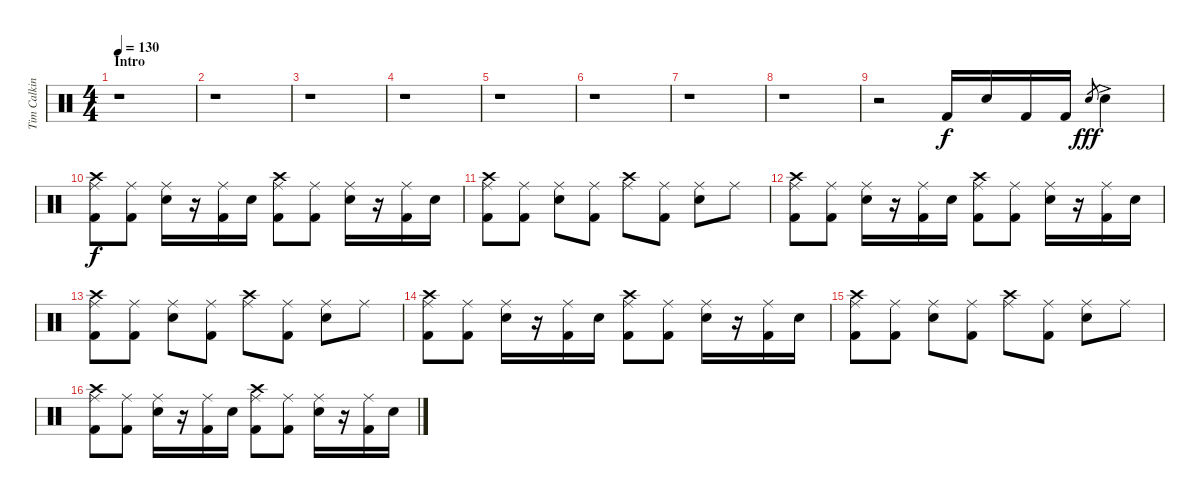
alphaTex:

\track ("Tim Calkin" "Tim Calkin") {instrument percussion}
\staff {score}
\articulation defaults
\ts (4 4)
\section ("" "Intro")
\tempo 130
\clef neutral
\ks c
r.1{dy f} |
r.1 |
r.1 |
r.1 |
r.1 |
r.1 |
r.1 |
r.1 |
r.2 "Kick (hit) 2".16 "Snare (hit) 2".16 "Kick (hit) 2".16 "Kick (hit) 2".16 "Snare (hit) 2".8{gr dy fff} "Snare (hit) 2"{ac}.4 |
("Ride (middle)" "Crash high (hit)" "Kick (hit) 2").8{dy f} ("Ride (middle)" "Kick (hit) 2").8 ("Ride (middle)" "Snare (hit) 2").16 r.16 ("Ride (middle)" "Kick (hit) 2").16 "Snare (hit) 2".16 ("Ride (middle)" "Crash high (hit)" "Kick (hit) 2").8 ("Ride (middle)" "Kick (hit) 2").8 ("Ride (middle)" "Snare (hit) 2").16 r.16 ("Ride (middle)" "Kick (hit) 2").16 "Snare (hit) 2".16 |
("Ride (middle)" "Crash high (hit)" "Kick (hit) 2").8 ("Ride (middle)" "Kick (hit) 2").8 ("Ride (middle)" "Snare (hit) 2").8 ("Ride (middle)" "Kick (hit) 2").8 ("Ride (middle)" "Crash high (hit)").8 ("Ride (middle)" "Kick (hit) 2").8 ("Ride (middle)" "Snare (hit) 2").8 "Ride (middle)".8 |
("Ride (middle)" "Crash high (hit)" "Kick (hit) 2").8 ("Ride (middle)" "Kick (hit) 2").8 ("Ride (middle)" "Snare (hit) 2").16 r.16 ("Ride (middle)" "Kick (hit) 2").16 "Snare (hit) 2".16 ("Ride (middle)" "Crash high (hit)" "Kick (hit) 2").8 ("Ride (middle)" "Kick (hit) 2").8 ("Ride (middle)" "Snare (hit) 2").16 r.16 ("Ride (middle)" "Kick (hit) 2").16 "Snare (hit) 2".16 |
("Ride (middle)" "Crash high (hit)" "Kick (hit) 2").8 ("Ride (middle)" "Kick (hit) 2").8 ("Ride (middle)" "Snare (hit) 2").8 ("Ride (middle)" "Kick (hit) 2").8 ("Ride (middle)" "Crash high (hit)").8 ("Ride (middle)" "Kick (hit) 2").8 ("Ride (middle)" "Snare (hit) 2").8 "Ride (middle)".8 |
("Ride (middle)" "Crash high (hit)" "Kick (hit) 2").8 ("Ride (middle)" "Kick (hit) 2").8 ("Ride (middle)" "Snare (hit) 2").16 r.16 ("Ride (middle)" "Kick (hit) 2").16 "Snare (hit) 2".16 ("Ride (middle)" "Crash high (hit)" "Kick (hit) 2").8 ("Ride (middle)" "Kick (hit) 2").8 ("Ride (middle)" "Snare (hit) 2").16 r.16 ("Ride (middle)" "Kick (hit) 2").16 "Snare (hit) 2".16 |
("Ride (middle)" "Crash high (hit)" "Kick (hit) 2").8 ("Ride (middle)" "Kick (hit) 2").8 ("Ride (middle)" "Snare (hit) 2").8 ("Ride (middle)" "Kick (hit) 2").8 ("Ride (middle)" "Crash high (hit)").8 ("Ride (middle)" "Kick (hit) 2").8 ("Ride (middle)" "Snare (hit) 2").8 "Ride (middle)".8 |
("Ride (middle)" "Crash high (hit)" "Kick (hit) 2").8 ("Ride (middle)" "Kick (hit) 2").8 ("Ride (middle)" "Snare (hit) 2").16 r.16 ("Ride (middle)" "Kick (hit) 2").16 "Snare (hit) 2".16 ("Ride (middle)" "Crash high (hit)" "Kick (hit) 2").8 ("Ride (middle)" "Kick (hit) 2").8 ("Ride (middle)" "Snare (hit) 2").16 r.16 ("Ride (middle)" "Kick (hit) 2").16 "Snare (hit) 2".16
